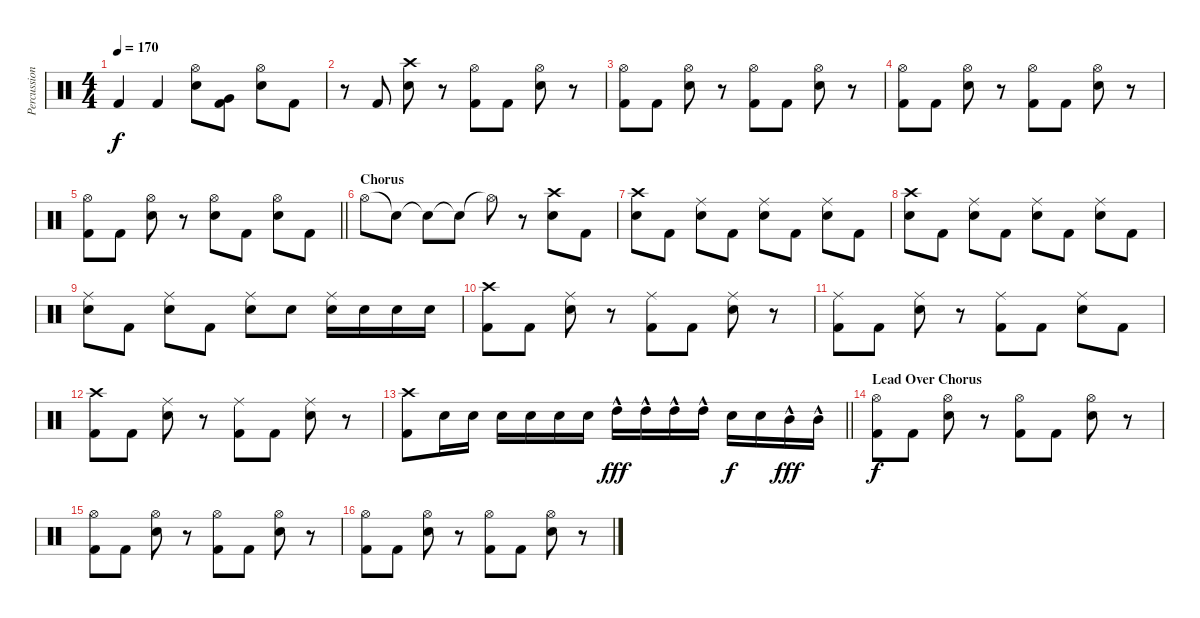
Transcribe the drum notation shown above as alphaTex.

\track ("Percussion" "Percussion") {instrument percussion}
\staff {score}
\articulation defaults
\ts (4 4)
\tempo 170
\clef neutral
\ks c "Kick (hit) 2".4{dy f} "Kick (hit) 2".4
("Hi-Hat (open)" "Electric Snare (hit)").8 ("Very Low Tom (hit)" "Kick (hit) 2").8 ("Hi-Hat (open)" "Electric Snare (hit)").8 "Kick (hit) 2".8 |
r.8 "Kick (hit) 2".8 ("Crash high (hit)" "Electric Snare (hit)").8 r.8 ("Hi-Hat (open)" "Kick (hit) 2").8 "Kick (hit) 2".8 ("Hi-Hat (open)" "Electric Snare (hit)").8 r.8 |
("Hi-Hat (open)" "Kick (hit) 2").8 "Kick (hit) 2".8 ("Hi-Hat (open)" "Electric Snare (hit)").8 r.8 ("Hi-Hat (open)" "Kick (hit) 2").8 "Kick (hit) 2".8 ("Hi-Hat (open)" "Electric Snare (hit)").8 r.8 |
("Hi-Hat (open)" "Kick (hit) 2").8 "Kick (hit) 2".8 ("Hi-Hat (open)" "Electric Snare (hit)").8 r.8 ("Hi-Hat (open)" "Kick (hit) 2").8 "Kick (hit) 2".8 ("Hi-Hat (open)" "Electric Snare (hit)").8 r.8 |
\barLineRight lightlight
("Hi-Hat (open)" "Kick (hit) 2").8 "Kick (hit) 2".8 ("Hi-Hat (open)" "Electric Snare (hit)").8 r.8 ("Hi-Hat (open)" "Electric Snare (hit)").8 "Kick (hit) 2".8 ("Hi-Hat (open)" "Electric Snare (hit)").8 "Kick (hit) 2".8 |
\section ("" "Chorus")
"Hi-Hat (open)".8{volume 16} "Snare (hit)"{t}.8 "Snare (hit)"{t}.8 "Snare (hit)"{t}.8 "Hi-Hat (open)"{t}.8 r.8 ("Crash high (hit)" "Electric Snare (hit)").8 "Kick (hit) 2".8 |
("Crash high (hit)" "Electric Snare (hit)").8 "Kick (hit) 2".8 ("Ride (middle)" "Electric Snare (hit)").8 "Kick (hit) 2".8 ("Ride (middle)" "Electric Snare (hit)").8 "Kick (hit) 2".8 ("Ride (middle)" "Electric Snare (hit)").8 "Kick (hit) 2".8 |
("Crash high (hit)" "Electric Snare (hit)").8 "Kick (hit) 2".8 ("Ride (middle)" "Electric Snare (hit)").8 "Kick (hit) 2".8 ("Ride (middle)" "Electric Snare (hit)").8 "Kick (hit) 2".8 ("Ride (middle)" "Electric Snare (hit)").8 "Kick (hit) 2".8 |
("Ride (middle)" "Electric Snare (hit)").8 "Kick (hit) 2".8 ("Ride (middle)" "Electric Snare (hit)").8 "Kick (hit) 2".8 ("Ride (middle)" "Electric Snare (hit)").8 "Electric Snare (hit)".8 ("Ride (middle)" "Electric Snare (hit)").16 "Electric Snare (hit)".16 "Electric Snare (hit)".16 "Electric Snare (hit)".16 |
("Crash high (hit)" "Kick (hit) 2").8 "Kick (hit) 2".8 ("Ride (middle)" "Electric Snare (hit)").8 r.8 ("Ride (middle)" "Kick (hit) 2").8 "Kick (hit) 2".8 ("Ride (middle)" "Electric Snare (hit)").8 r.8 |
("Ride (middle)" "Kick (hit) 2").8 "Kick (hit) 2".8 ("Ride (middle)" "Electric Snare (hit)").8 r.8 ("Ride (middle)" "Kick (hit) 2").8 "Kick (hit) 2".8 ("Ride (middle)" "Electric Snare (hit)").8 "Kick (hit) 2".8 |
("Crash high (hit)" "Kick (hit) 2").8 "Kick (hit) 2".8 ("Ride (middle)" "Electric Snare (hit)").8 r.8 ("Ride (middle)" "Kick (hit) 2").8 "Kick (hit) 2".8 ("Ride (middle)" "Electric Snare (hit)").8 r.8 |
\barLineRight lightlight
("Crash high (hit)" "Kick (hit) 2").8 "Electric Snare (hit)".16 "Electric Snare (hit)".16 "Electric Snare (hit)".16 "Electric Snare (hit)".16 "Electric Snare (hit)".16 "Electric Snare (hit)".16 "High Tom (hit)"{hac}.16{dy fff} "High Tom (hit)"{hac}.16 "High Tom (hit)"{hac}.16 "High Tom (hit)"{hac}.16 "Electric Snare (hit)".16{dy f} "Electric Snare (hit)".16 "Mid Tom (hit)"{hac}.16{dy fff} "Mid Tom (hit)"{hac}.16 |
\section ("" "Lead Over Chorus")
("Hi-Hat (open)" "Kick (hit) 2").8{dy f} "Kick (hit) 2".8 ("Hi-Hat (open)" "Electric Snare (hit)").8 r.8 ("Hi-Hat (open)" "Kick (hit) 2").8 "Kick (hit) 2".8 ("Hi-Hat (open)" "Electric Snare (hit)").8 r.8 |
("Hi-Hat (open)" "Kick (hit) 2").8 "Kick (hit) 2".8 ("Hi-Hat (open)" "Electric Snare (hit)").8 r.8 ("Hi-Hat (open)" "Kick (hit) 2").8 "Kick (hit) 2".8 ("Hi-Hat (open)" "Electric Snare (hit)").8 r.8 |
("Hi-Hat (open)" "Kick (hit) 2").8 "Kick (hit) 2".8 ("Hi-Hat (open)" "Electric Snare (hit)").8 r.8 ("Hi-Hat (open)" "Kick (hit) 2").8 "Kick (hit) 2".8 ("Hi-Hat (open)" "Electric Snare (hit)").8 r.8
